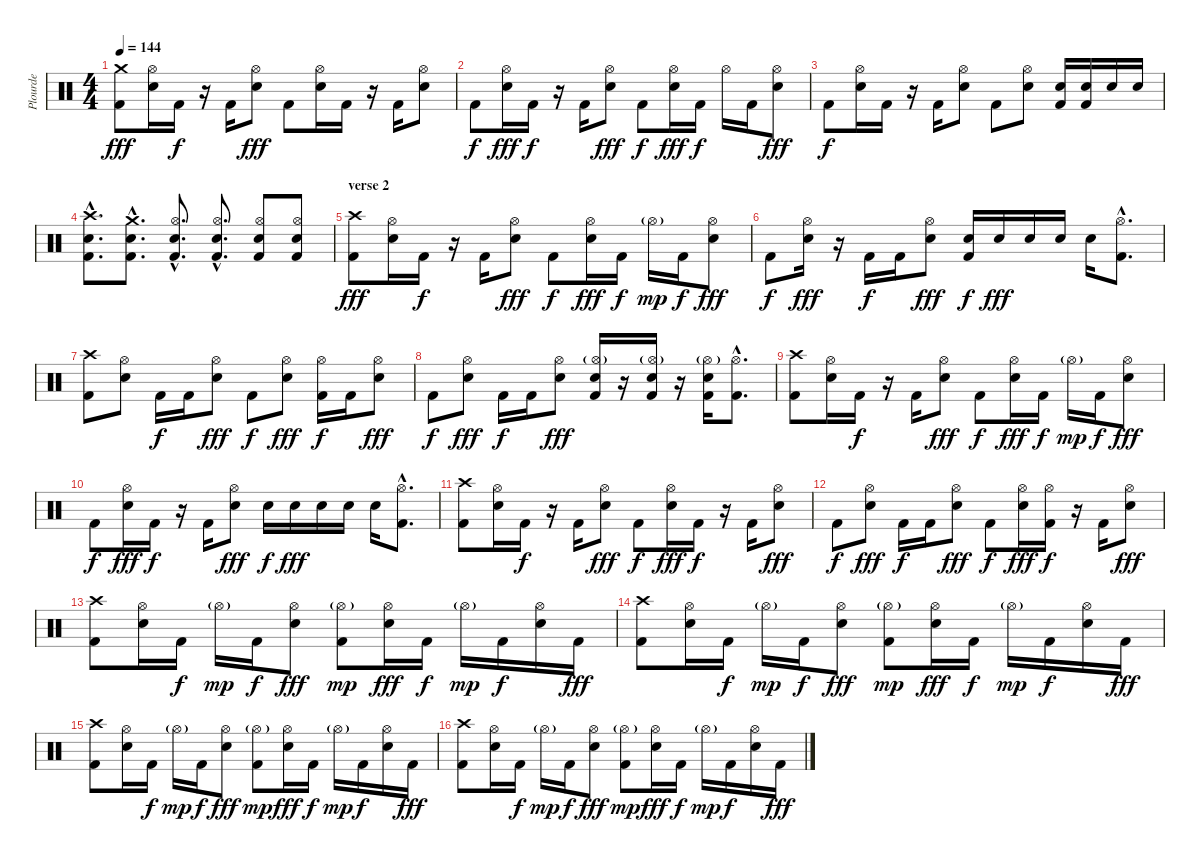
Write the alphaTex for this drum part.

\track ("Plourde" "Plourde") {instrument percussion}
\staff {score}
\articulation defaults
\ts (4 4)
\tempo 144
\clef neutral
\ks c
("Crash medium (hit)" "Kick (hit) 2").8{dy fff} ("Hi-Hat (open)" "Electric Snare (hit)").16 "Kick (hit) 2".16{dy f} r.16 "Kick (hit) 2".16 ("Hi-Hat (open)" "Electric Snare (hit)").8{dy fff} "Kick (hit) 2".8 ("Hi-Hat (open)" "Electric Snare (hit)").16 "Kick (hit) 2".16 r.16 "Kick (hit) 2".16 ("Hi-Hat (open)" "Electric Snare (hit)").8 |
"Kick (hit) 2".8{dy f} ("Hi-Hat (open)" "Electric Snare (hit)").16{dy fff} "Kick (hit) 2".16{dy f} r.16 "Kick (hit) 2".16 ("Hi-Hat (open)" "Electric Snare (hit)").8{dy fff} "Kick (hit) 2".8{dy f} ("Hi-Hat (open)" "Electric Snare (hit)").16{dy fff} "Kick (hit) 2".16{dy f} "Hi-Hat (open)".16 "Kick (hit) 2".16 ("Hi-Hat (open)" "Electric Snare (hit)").8{dy fff} |
"Kick (hit) 2".8{dy f} ("Hi-Hat (open)" "Electric Snare (hit)").16 "Kick (hit) 2".16 r.16 "Kick (hit) 2".16 ("Hi-Hat (open)" "Electric Snare (hit)").8 "Kick (hit) 2".8 ("Hi-Hat (open)" "Electric Snare (hit)").8 ("Electric Snare (hit)" "Kick (hit) 2").16 ("Electric Snare (hit)" "Kick (hit) 2").16 "Electric Snare (hit)".16 "Electric Snare (hit)".16 |
("Crash high (hit)"{hac} "Electric Snare (hit)"{hac} "Kick (hit) 2"{hac}).8{d} ("Crash medium (hit)"{hac} "Electric Snare (hit)"{hac} "Kick (hit) 2"{hac}).8{d} ("Hi-Hat (open)"{hac} "Electric Snare (hit)"{hac} "Kick (hit) 2"{hac}).8{d} ("Hi-Hat (open)"{hac} "Electric Snare (hit)"{hac} "Kick (hit) 2"{hac}).8{d} ("Hi-Hat (open)" "Electric Snare (hit)" "Kick (hit) 2").8 ("Hi-Hat (open)" "Electric Snare (hit)" "Kick (hit) 2").8 |
\section ("" "verse 2")
("Crash high (hit)" "Kick (hit) 2").8{dy fff} ("Hi-Hat (open)" "Electric Snare (hit)").16 "Kick (hit) 2".16{dy f} r.16 "Kick (hit) 2".16 ("Hi-Hat (open)" "Electric Snare (hit)").8{dy fff} "Kick (hit) 2".8{dy f} ("Hi-Hat (open)" "Electric Snare (hit)").16{dy fff} "Kick (hit) 2".16{dy f} "Hi-Hat (open)"{g}.16{dy mp} "Kick (hit) 2".16{dy f} ("Hi-Hat (open)" "Electric Snare (hit)").8{dy fff} |
"Kick (hit) 2".8{dy f} ("Hi-Hat (open)" "Electric Snare (hit)").16{dy fff} r.16 "Kick (hit) 2".16{dy f} "Kick (hit) 2".16 ("Hi-Hat (open)" "Electric Snare (hit)").8{dy fff} ("Electric Snare (hit)" "Kick (hit) 2").16{dy f} "Electric Snare (hit)".16{dy fff} "Electric Snare (hit)".16 "Electric Snare (hit)".16 "Electric Snare (hit)".16 ("Hi-Hat (open)"{hac} "Kick (hit) 2"{hac}).8{d} |
("Crash high (hit)" "Kick (hit) 2").8 ("Hi-Hat (open)" "Electric Snare (hit)").8 "Kick (hit) 2".16{dy f} "Kick (hit) 2".16 ("Hi-Hat (open)" "Electric Snare (hit)").8{dy fff} "Kick (hit) 2".8{dy f} ("Hi-Hat (open)" "Electric Snare (hit)").8{dy fff} ("Hi-Hat (open)" "Kick (hit) 2").16{dy f} "Kick (hit) 2".16 ("Hi-Hat (open)" "Electric Snare (hit)").8{dy fff} |
"Kick (hit) 2".8{dy f} ("Hi-Hat (open)" "Electric Snare (hit)").8{dy fff} "Kick (hit) 2".16{dy f} "Kick (hit) 2".16 ("Hi-Hat (open)" "Electric Snare (hit)").8{dy fff} ("Hi-Hat (open)"{g} "Electric Snare (hit)" "Kick (hit) 2").16 r.16 ("Hi-Hat (open)"{g} "Electric Snare (hit)" "Kick (hit) 2").16 r.16 ("Hi-Hat (open)"{g} "Electric Snare (hit)" "Kick (hit) 2").16 ("Hi-Hat (open)"{hac} "Kick (hit) 2"{hac}).8{d} |
("Crash high (hit)" "Kick (hit) 2").8 ("Hi-Hat (open)" "Electric Snare (hit)").16 "Kick (hit) 2".16{dy f} r.16 "Kick (hit) 2".16 ("Hi-Hat (open)" "Electric Snare (hit)").8{dy fff} "Kick (hit) 2".8{dy f} ("Hi-Hat (open)" "Electric Snare (hit)").16{dy fff} "Kick (hit) 2".16{dy f} "Hi-Hat (open)"{g}.16{dy mp} "Kick (hit) 2".16{dy f} ("Hi-Hat (open)" "Electric Snare (hit)").8{dy fff} |
"Kick (hit) 2".8{dy f} ("Hi-Hat (open)" "Electric Snare (hit)").16{dy fff} "Kick (hit) 2".16{dy f} r.16 "Kick (hit) 2".16 ("Hi-Hat (open)" "Electric Snare (hit)").8{dy fff} "Electric Snare (hit)".16{dy f} "Electric Snare (hit)".16{dy fff} "Electric Snare (hit)".16 "Electric Snare (hit)".16 "Electric Snare (hit)".16 ("Hi-Hat (open)"{hac} "Kick (hit) 2"{hac}).8{d} |
("Crash high (hit)" "Kick (hit) 2").8 ("Hi-Hat (open)" "Electric Snare (hit)").16 "Kick (hit) 2".16{dy f} r.16 "Kick (hit) 2".16 ("Hi-Hat (open)" "Electric Snare (hit)").8{dy fff} "Kick (hit) 2".8{dy f} ("Hi-Hat (open)" "Electric Snare (hit)").16{dy fff} "Kick (hit) 2".16{dy f} r.16 "Kick (hit) 2".16 ("Hi-Hat (open)" "Electric Snare (hit)").8{dy fff} |
"Kick (hit) 2".8{dy f} ("Hi-Hat (open)" "Electric Snare (hit)").8{dy fff} "Kick (hit) 2".16{dy f} "Kick (hit) 2".16 ("Hi-Hat (open)" "Electric Snare (hit)").8{dy fff} "Kick (hit) 2".8{dy f} ("Hi-Hat (open)" "Electric Snare (hit)").16{dy fff} ("Hi-Hat (open)" "Kick (hit) 2").16{dy f} r.16 "Kick (hit) 2".16 ("Hi-Hat (open)" "Electric Snare (hit)").8{dy fff} |
("Crash high (hit)" "Kick (hit) 2").8 ("Hi-Hat (open)" "Electric Snare (hit)").16 "Kick (hit) 2".16{dy f} "Hi-Hat (open)"{g}.16{dy mp} "Kick (hit) 2".16{dy f} ("Hi-Hat (open)" "Electric Snare (hit)").8{dy fff} ("Hi-Hat (open)"{g} "Kick (hit) 2").8{dy mp} ("Hi-Hat (open)" "Electric Snare (hit)").16{dy fff} "Kick (hit) 2".16{dy f} "Hi-Hat (open)"{g}.16{dy mp} "Kick (hit) 2".16{dy f} ("Hi-Hat (open)" "Electric Snare (hit)").16 "Kick (hit) 2".16{dy fff} |
("Crash high (hit)" "Kick (hit) 2").8 ("Hi-Hat (open)" "Electric Snare (hit)").16 "Kick (hit) 2".16{dy f} "Hi-Hat (open)"{g}.16{dy mp} "Kick (hit) 2".16{dy f} ("Hi-Hat (open)" "Electric Snare (hit)").8{dy fff} ("Hi-Hat (open)"{g} "Kick (hit) 2").8{dy mp} ("Hi-Hat (open)" "Electric Snare (hit)").16{dy fff} "Kick (hit) 2".16{dy f} "Hi-Hat (open)"{g}.16{dy mp} "Kick (hit) 2".16{dy f} ("Hi-Hat (open)" "Electric Snare (hit)").16 "Kick (hit) 2".16{dy fff} |
("Crash high (hit)" "Kick (hit) 2").8 ("Hi-Hat (open)" "Electric Snare (hit)").16 "Kick (hit) 2".16{dy f} "Hi-Hat (open)"{g}.16{dy mp} "Kick (hit) 2".16{dy f} ("Hi-Hat (open)" "Electric Snare (hit)").8{dy fff} ("Hi-Hat (open)"{g} "Kick (hit) 2").8{dy mp} ("Hi-Hat (open)" "Electric Snare (hit)").16{dy fff} "Kick (hit) 2".16{dy f} "Hi-Hat (open)"{g}.16{dy mp} "Kick (hit) 2".16{dy f} ("Hi-Hat (open)" "Electric Snare (hit)").16 "Kick (hit) 2".16{dy fff} |
("Crash high (hit)" "Kick (hit) 2").8 ("Hi-Hat (open)" "Electric Snare (hit)").16 "Kick (hit) 2".16{dy f} "Hi-Hat (open)"{g}.16{dy mp} "Kick (hit) 2".16{dy f} ("Hi-Hat (open)" "Electric Snare (hit)").8{dy fff} ("Hi-Hat (open)"{g} "Kick (hit) 2").8{dy mp} ("Hi-Hat (open)" "Electric Snare (hit)").16{dy fff} "Kick (hit) 2".16{dy f} "Hi-Hat (open)"{g}.16{dy mp} "Kick (hit) 2".16{dy f} ("Hi-Hat (open)" "Electric Snare (hit)").16 "Kick (hit) 2".16{dy fff}
